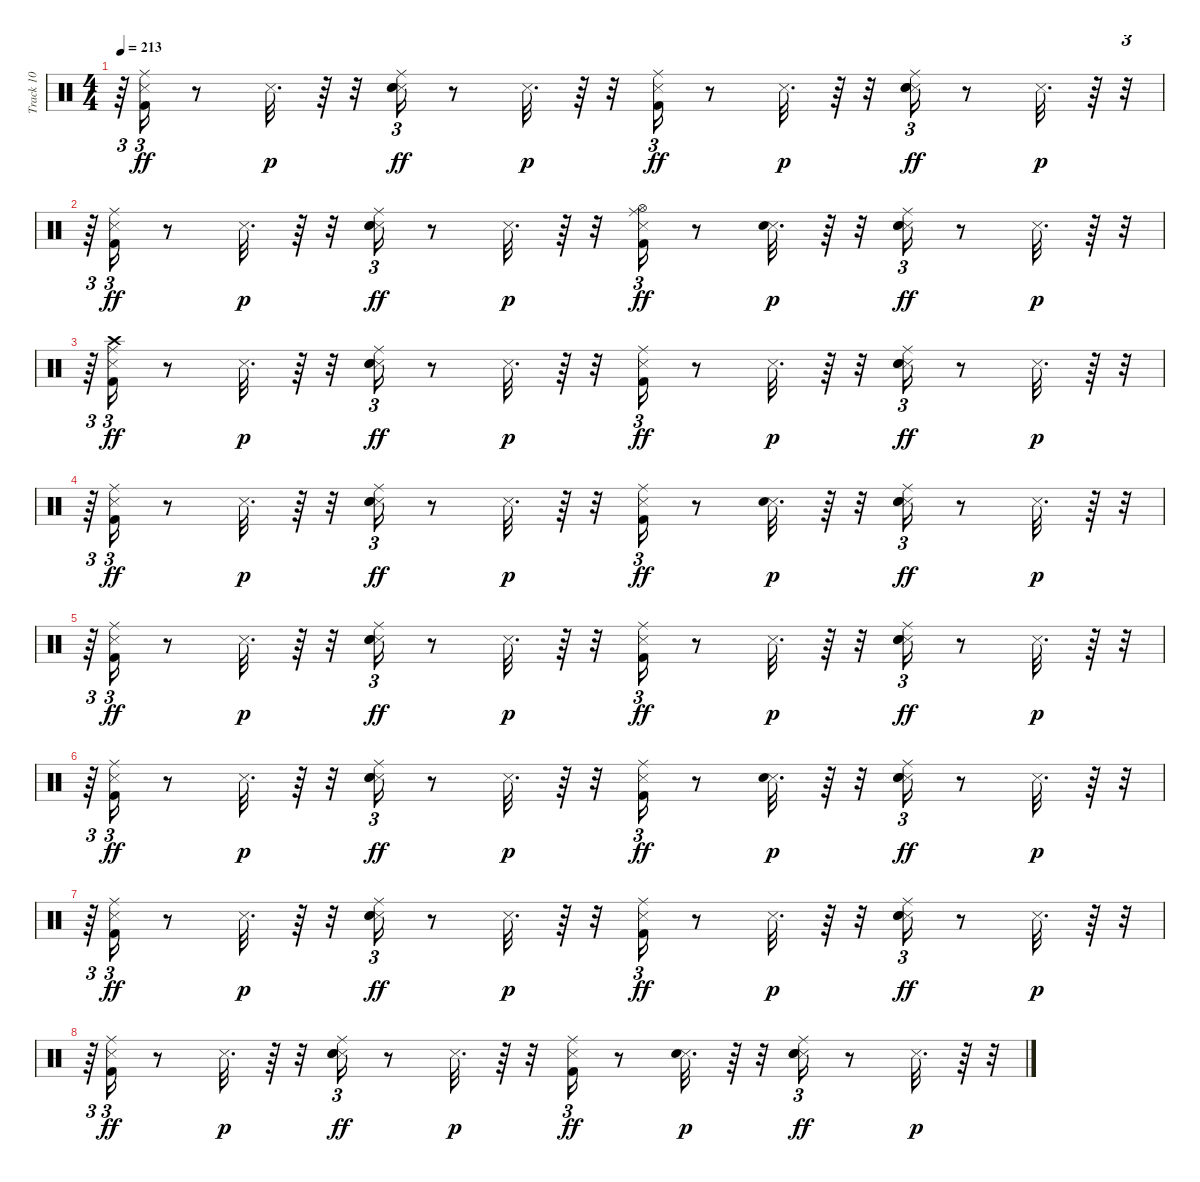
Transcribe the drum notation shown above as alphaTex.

\track ("Track 10" "Track 10") {instrument percussion}
\staff {score}
\articulation defaults
\ts (4 4)
\tempo 213
\clef neutral
\ks c
r.64{tu (3 2) dy p} ("Kick (hit) 2" "Snare (side stick) 3" "Ride (middle)").16{tu (3 2) dy ff} r.8 "Snare (side stick) 3".32{d dy p} r.64 r.32 ("Snare (side stick) 3" "Hand Clap (hit)" "Electric Snare (hit)" "Ride (middle)").16{tu (3 2) dy ff} r.8 "Snare (side stick) 3".32{d dy p} r.64 r.32 ("Kick (hit) 2" "Snare (side stick) 3" "Ride (middle)").16{tu (3 2) dy ff} r.8 "Snare (side stick) 3".32{d dy p} r.64 r.32 ("Snare (side stick) 3" "Hand Clap (hit)" "Electric Snare (hit)" "Ride (middle)").16{tu (3 2) dy ff} r.8 "Snare (side stick) 3".32{d dy p} r.64 r.32{tu (3 2)} |
r.64{tu (3 2)} ("Kick (hit) 2" "Snare (side stick) 3" "Ride (middle)").16{tu (3 2) dy ff} r.8 "Snare (side stick) 3".32{d dy p} r.64 r.32 ("Snare (side stick) 3" "Hand Clap (hit)" "Electric Snare (hit)" "Ride (middle)").16{tu (3 2) dy ff} r.8 "Snare (side stick) 3".32{d dy p} r.64 r.32 ("Kick (hit) 2" "Snare (side stick) 3" "Hi-Hat (open)" "Ride (middle)").16{tu (3 2) dy ff} r.8 ("Snare (side stick) 3" "Electric Snare (hit)").32{d dy p} r.64 r.32 ("Snare (side stick) 3" "Hand Clap (hit)" "Electric Snare (hit)" "Ride (middle)").16{tu (3 2) dy ff} r.8 "Snare (side stick) 3".32{d dy p} r.64 r.32{tu (3 2)} |
r.64{tu (3 2)} ("Kick (hit) 2" "Snare (side stick) 3" "Crash high (hit)" "Ride (middle)").16{tu (3 2) dy ff} r.8 "Snare (side stick) 3".32{d dy p} r.64 r.32 ("Snare (side stick) 3" "Hand Clap (hit)" "Electric Snare (hit)" "Ride (middle)").16{tu (3 2) dy ff} r.8 "Snare (side stick) 3".32{d dy p} r.64 r.32 ("Kick (hit) 2" "Snare (side stick) 3" "Ride (middle)").16{tu (3 2) dy ff} r.8 "Snare (side stick) 3".32{d dy p} r.64 r.32 ("Snare (side stick) 3" "Hand Clap (hit)" "Electric Snare (hit)" "Ride (middle)").16{tu (3 2) dy ff} r.8 "Snare (side stick) 3".32{d dy p} r.64 r.32{tu (3 2)} |
r.64{tu (3 2)} ("Kick (hit) 2" "Snare (side stick) 3" "Ride (middle)").16{tu (3 2) dy ff} r.8 "Snare (side stick) 3".32{d dy p} r.64 r.32 ("Snare (side stick) 3" "Hand Clap (hit)" "Electric Snare (hit)" "Ride (middle)").16{tu (3 2) dy ff} r.8 "Snare (side stick) 3".32{d dy p} r.64 r.32 ("Kick (hit) 2" "Snare (side stick) 3" "Ride (middle)").16{tu (3 2) dy ff} r.8 ("Snare (side stick) 3" "Electric Snare (hit)").32{d dy p} r.64 r.32 ("Snare (side stick) 3" "Hand Clap (hit)" "Electric Snare (hit)" "Ride (middle)").16{tu (3 2) dy ff} r.8 "Snare (side stick) 3".32{d dy p} r.64 r.32{tu (3 2)} |
r.64{tu (3 2)} ("Kick (hit) 2" "Snare (side stick) 3" "Ride (middle)").16{tu (3 2) dy ff} r.8 "Snare (side stick) 3".32{d dy p} r.64 r.32 ("Snare (side stick) 3" "Hand Clap (hit)" "Electric Snare (hit)" "Ride (middle)").16{tu (3 2) dy ff} r.8 "Snare (side stick) 3".32{d dy p} r.64 r.32 ("Kick (hit) 2" "Snare (side stick) 3" "Ride (middle)").16{tu (3 2) dy ff} r.8 "Snare (side stick) 3".32{d dy p} r.64 r.32 ("Snare (side stick) 3" "Hand Clap (hit)" "Electric Snare (hit)" "Ride (middle)").16{tu (3 2) dy ff} r.8 "Snare (side stick) 3".32{d dy p} r.64 r.32{tu (3 2)} |
r.64{tu (3 2)} ("Kick (hit) 2" "Snare (side stick) 3" "Ride (middle)").16{tu (3 2) dy ff} r.8 "Snare (side stick) 3".32{d dy p} r.64 r.32 ("Snare (side stick) 3" "Hand Clap (hit)" "Electric Snare (hit)" "Ride (middle)").16{tu (3 2) dy ff} r.8 "Snare (side stick) 3".32{d dy p} r.64 r.32 ("Kick (hit) 2" "Snare (side stick) 3" "Ride (middle)").16{tu (3 2) dy ff} r.8 ("Snare (side stick) 3" "Electric Snare (hit)").32{d dy p} r.64 r.32 ("Snare (side stick) 3" "Hand Clap (hit)" "Electric Snare (hit)" "Ride (middle)").16{tu (3 2) dy ff} r.8 "Snare (side stick) 3".32{d dy p} r.64 r.32{tu (3 2)} |
r.64{tu (3 2)} ("Kick (hit) 2" "Snare (side stick) 3" "Ride (middle)").16{tu (3 2) dy ff} r.8 "Snare (side stick) 3".32{d dy p} r.64 r.32 ("Snare (side stick) 3" "Hand Clap (hit)" "Electric Snare (hit)" "Ride (middle)").16{tu (3 2) dy ff} r.8 "Snare (side stick) 3".32{d dy p} r.64 r.32 ("Kick (hit) 2" "Snare (side stick) 3" "Ride (middle)").16{tu (3 2) dy ff} r.8 "Snare (side stick) 3".32{d dy p} r.64 r.32 ("Snare (side stick) 3" "Hand Clap (hit)" "Electric Snare (hit)" "Ride (middle)").16{tu (3 2) dy ff} r.8 "Snare (side stick) 3".32{d dy p} r.64 r.32{tu (3 2)} |
r.64{tu (3 2)} ("Kick (hit) 2" "Snare (side stick) 3" "Ride (middle)").16{tu (3 2) dy ff} r.8 "Snare (side stick) 3".32{d dy p} r.64 r.32 ("Snare (side stick) 3" "Hand Clap (hit)" "Electric Snare (hit)" "Ride (middle)").16{tu (3 2) dy ff} r.8 "Snare (side stick) 3".32{d dy p} r.64 r.32 ("Kick (hit) 2" "Snare (side stick) 3" "Ride (middle)").16{tu (3 2) dy ff} r.8 ("Snare (side stick) 3" "Electric Snare (hit)").32{d dy p} r.64 r.32 ("Snare (side stick) 3" "Hand Clap (hit)" "Electric Snare (hit)" "Ride (middle)").16{tu (3 2) dy ff} r.8 "Snare (side stick) 3".32{d dy p} r.64 r.32{tu (3 2)}
